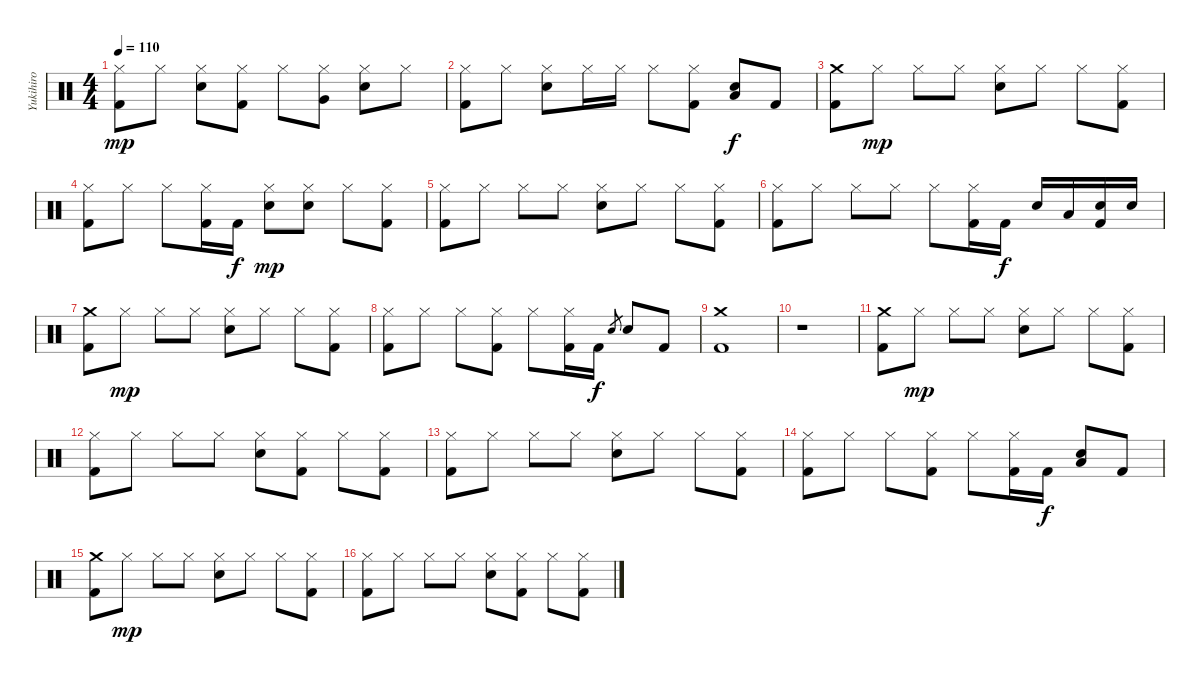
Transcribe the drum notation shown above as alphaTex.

\track ("Yukihiro " "Yukihiro ") {instrument percussion}
\staff {score}
\articulation defaults
\ts (4 4)
\tempo 110
\clef neutral
\ks c
("Hi-Hat (closed)" "Kick (hit) 2").8{dy mp} "Hi-Hat (closed)".8 ("Hi-Hat (closed)" "Electric Snare (hit)").8 ("Hi-Hat (closed)" "Kick (hit) 2").8 "Hi-Hat (closed)".8 ("Hi-Hat (closed)" "Very Low Tom (hit)").8 ("Hi-Hat (closed)" "Electric Snare (hit)").8 "Hi-Hat (closed)".8 |
("Hi-Hat (closed)" "Kick (hit) 2").8 "Hi-Hat (closed)".8 ("Hi-Hat (closed)" "Electric Snare (hit)").8 "Hi-Hat (closed)".16 "Hi-Hat (closed)".16 "Hi-Hat (closed)".8 ("Hi-Hat (closed)" "Kick (hit) 2").8 ("Electric Snare (hit)" "Low Floor Tom (hit)").8{dy f} "Kick (hit) 2".8 |
("Crash medium (hit)" "Kick (hit) 2").8 "Hi-Hat (closed)".8{dy mp} "Hi-Hat (closed)".8 "Hi-Hat (closed)".8 ("Hi-Hat (closed)" "Electric Snare (hit)").8 "Hi-Hat (closed)".8 "Hi-Hat (closed)".8 ("Hi-Hat (closed)" "Kick (hit) 2").8 |
("Hi-Hat (closed)" "Kick (hit) 2").8 "Hi-Hat (closed)".8 "Hi-Hat (closed)".8 ("Hi-Hat (closed)" "Kick (hit) 2").16 "Kick (hit) 2".16{dy f} ("Hi-Hat (closed)" "Electric Snare (hit)").8{dy mp} ("Hi-Hat (closed)" "Electric Snare (hit)").8 "Hi-Hat (closed)".8 ("Hi-Hat (closed)" "Kick (hit) 2").8 |
("Hi-Hat (closed)" "Kick (hit) 2").8 "Hi-Hat (closed)".8 "Hi-Hat (closed)".8 "Hi-Hat (closed)".8 ("Hi-Hat (closed)" "Electric Snare (hit)").8 "Hi-Hat (closed)".8 "Hi-Hat (closed)".8 ("Hi-Hat (closed)" "Kick (hit) 2").8 |
("Hi-Hat (closed)" "Kick (hit) 2").8 "Hi-Hat (closed)".8 "Hi-Hat (closed)".8 "Hi-Hat (closed)".8 "Hi-Hat (closed)".8 ("Hi-Hat (closed)" "Kick (hit) 2").16 "Kick (hit) 2".16{dy f} "Electric Snare (hit)".16 "Low Floor Tom (hit)".16 ("Electric Snare (hit)" "Kick (hit) 2").16 "Electric Snare (hit)".16 |
("Crash medium (hit)" "Kick (hit) 2").8 "Hi-Hat (closed)".8{dy mp} "Hi-Hat (closed)".8 "Hi-Hat (closed)".8 ("Hi-Hat (closed)" "Electric Snare (hit)").8 "Hi-Hat (closed)".8 "Hi-Hat (closed)".8 ("Hi-Hat (closed)" "Kick (hit) 2").8 |
("Hi-Hat (closed)" "Kick (hit) 2").8 "Hi-Hat (closed)".8 "Hi-Hat (closed)".8 ("Hi-Hat (closed)" "Kick (hit) 2").8 "Hi-Hat (closed)".8 ("Hi-Hat (closed)" "Kick (hit) 2").16 "Kick (hit) 2".16{dy f} "Electric Snare (hit)".8{gr} "Electric Snare (hit)".8 "Kick (hit) 2".8 |
("Crash medium (hit)" "Kick (hit) 2").1 |
r.1 |
("Crash medium (hit)" "Kick (hit) 2").8 "Hi-Hat (closed)".8{dy mp} "Hi-Hat (closed)".8 "Hi-Hat (closed)".8 ("Hi-Hat (closed)" "Electric Snare (hit)").8 "Hi-Hat (closed)".8 "Hi-Hat (closed)".8 ("Hi-Hat (closed)" "Kick (hit) 2").8 |
("Hi-Hat (closed)" "Kick (hit) 2").8 "Hi-Hat (closed)".8 "Hi-Hat (closed)".8 "Hi-Hat (closed)".8 ("Hi-Hat (closed)" "Electric Snare (hit)").8 ("Hi-Hat (closed)" "Kick (hit) 2").8 "Hi-Hat (closed)".8 ("Hi-Hat (closed)" "Kick (hit) 2").8 |
("Hi-Hat (closed)" "Kick (hit) 2").8 "Hi-Hat (closed)".8 "Hi-Hat (closed)".8 "Hi-Hat (closed)".8 ("Hi-Hat (closed)" "Electric Snare (hit)").8 "Hi-Hat (closed)".8 "Hi-Hat (closed)".8 ("Hi-Hat (closed)" "Kick (hit) 2").8 |
("Hi-Hat (closed)" "Kick (hit) 2").8 "Hi-Hat (closed)".8 "Hi-Hat (closed)".8 ("Hi-Hat (closed)" "Kick (hit) 2").8 "Hi-Hat (closed)".8 ("Hi-Hat (closed)" "Kick (hit) 2").16 "Kick (hit) 2".16{dy f} ("Electric Snare (hit)" "Low Floor Tom (hit)").8 "Kick (hit) 2".8 |
("Crash medium (hit)" "Kick (hit) 2").8 "Hi-Hat (closed)".8{dy mp} "Hi-Hat (closed)".8 "Hi-Hat (closed)".8 ("Hi-Hat (closed)" "Electric Snare (hit)").8 "Hi-Hat (closed)".8 "Hi-Hat (closed)".8 ("Hi-Hat (closed)" "Kick (hit) 2").8 |
("Hi-Hat (closed)" "Kick (hit) 2").8 "Hi-Hat (closed)".8 "Hi-Hat (closed)".8 "Hi-Hat (closed)".8 ("Hi-Hat (closed)" "Electric Snare (hit)").8 ("Hi-Hat (closed)" "Kick (hit) 2").8 "Hi-Hat (closed)".8 ("Hi-Hat (closed)" "Kick (hit) 2").8
